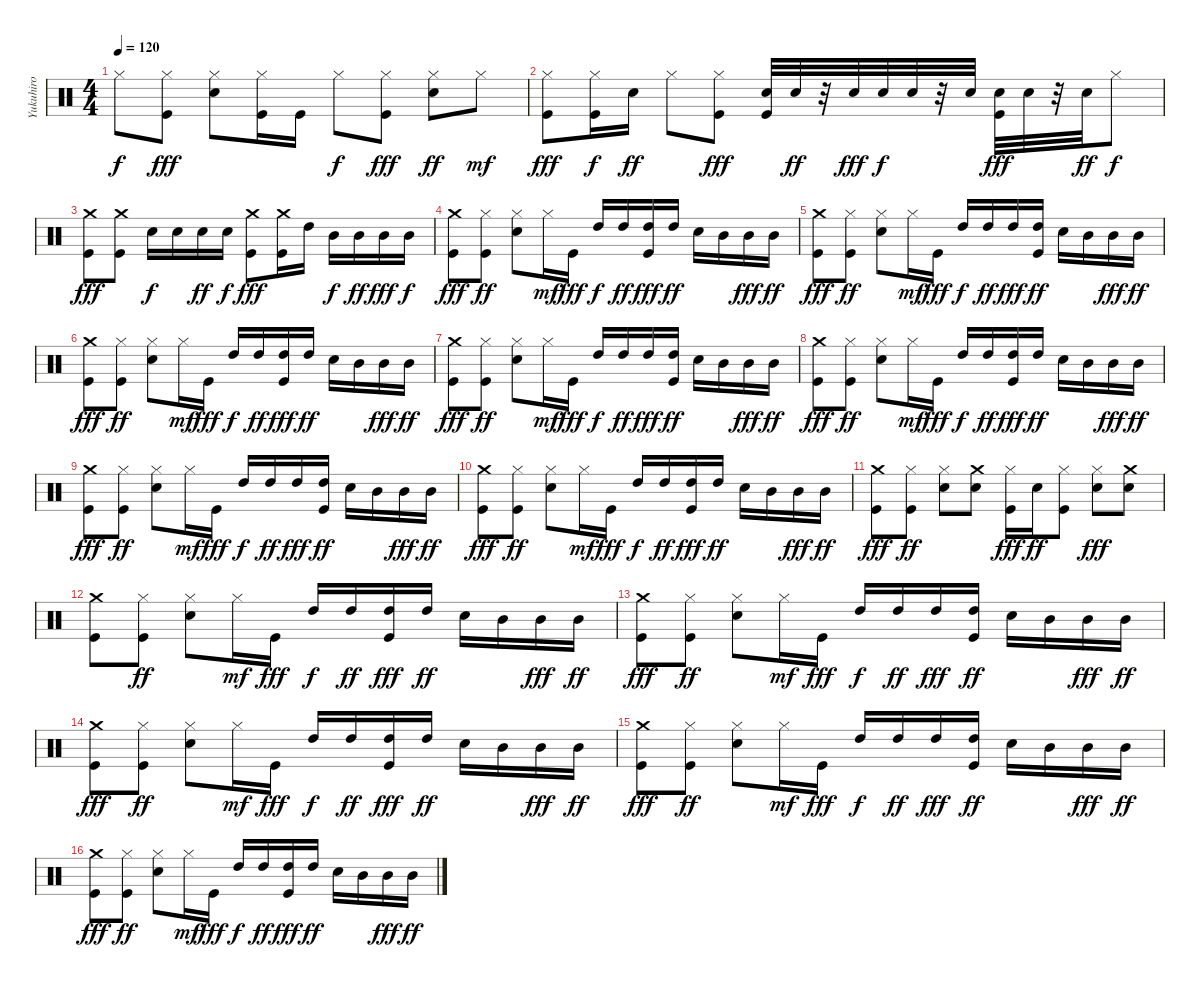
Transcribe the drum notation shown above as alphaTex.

\track ("Yukuhiro" "Yukuhiro") {instrument percussion}
\staff {score}
\articulation defaults
\ts (4 4)
\tempo 120
\clef neutral
\ks c "Hi-Hat (closed)".8{dy f}
("Hi-Hat (closed)" "Kick (hit)").8{dy fff} ("Electric Snare (hit)" "Hi-Hat (closed)").8 ("Hi-Hat (closed)" "Kick (hit)").16 "Kick (hit)".16 "Hi-Hat (closed)".8{dy f} ("Hi-Hat (closed)" "Kick (hit)").8{dy fff} ("Hi-Hat (closed)" "Electric Snare (hit)").8{dy ff} "Hi-Hat (closed)".8{dy mf} |
("Hi-Hat (closed)" "Kick (hit)").8{dy fff} ("Kick (hit)" "Hi-Hat (closed)").16{dy f} "Electric Snare (hit)".16{dy ff} "Hi-Hat (closed)".8 ("Kick (hit)" "Hi-Hat (closed)").8{dy fff} ("Kick (hit)" "Electric Snare (hit)").32 "Electric Snare (hit)".32{dy ff} r.32 "Electric Snare (hit)".32{dy fff} "Electric Snare (hit)".32{dy f} "Electric Snare (hit)".32 r.32 "Electric Snare (hit)".32 ("Kick (hit)" "Electric Snare (hit)").32{dy fff} "Electric Snare (hit)".32 r.32 "Electric Snare (hit)".32{dy ff} "Hi-Hat (closed)".8{dy f} |
("Kick (hit)" "Crash medium (hit)").8{dy fff} ("Kick (hit)" "Crash medium (hit)").8 "Electric Snare (hit)".16{dy f} "Electric Snare (hit)".16 "Electric Snare (hit)".16{dy ff} "Electric Snare (hit)".16{dy f} ("Kick (hit)" "Crash medium (hit)").8{dy fff} ("Kick (hit)" "Crash medium (hit)").16 "High Tom (hit)".16 "Mid Tom (hit)".16{dy f} "Mid Tom (hit)".16{dy ff} "Mid Tom (hit)".16{dy fff} "Mid Tom (hit)".16{dy f} |
("Crash medium (hit)" "Kick (hit)").8{dy fff} ("Kick (hit)" "Hi-Hat (closed)").8{dy ff} ("Electric Snare (hit)" "Hi-Hat (closed)").8 "Hi-Hat (closed)".16{dy mf} "Kick (hit)".16{dy fff} "High Tom (hit)".16{dy f} "High Tom (hit)".16{dy ff} ("Kick (hit)" "High Tom (hit)").16{dy fff} "High Tom (hit)".16{dy ff} "Electric Snare (hit)".16 "Mid Tom (hit)".16 "Mid Tom (hit)".16{dy fff} "Mid Tom (hit)".16{dy ff} |
("Crash medium (hit)" "Kick (hit)").8{dy fff} ("Kick (hit)" "Hi-Hat (closed)").8{dy ff} ("Electric Snare (hit)" "Hi-Hat (closed)").8 "Hi-Hat (closed)".16{dy mf} "Kick (hit)".16{dy fff} "High Tom (hit)".16{dy f} "High Tom (hit)".16{dy ff} "High Tom (hit)".16{dy fff} ("Kick (hit)" "High Tom (hit)").16{dy ff} "Electric Snare (hit)".16 "Mid Tom (hit)".16 "Mid Tom (hit)".16{dy fff} "Mid Tom (hit)".16{dy ff} |
("Crash medium (hit)" "Kick (hit)").8{dy fff} ("Kick (hit)" "Hi-Hat (closed)").8{dy ff} ("Electric Snare (hit)" "Hi-Hat (closed)").8 "Hi-Hat (closed)".16{dy mf} "Kick (hit)".16{dy fff} "High Tom (hit)".16{dy f} "High Tom (hit)".16{dy ff} ("Kick (hit)" "High Tom (hit)").16{dy fff} "High Tom (hit)".16{dy ff} "Electric Snare (hit)".16 "Mid Tom (hit)".16 "Mid Tom (hit)".16{dy fff} "Mid Tom (hit)".16{dy ff} |
("Crash medium (hit)" "Kick (hit)").8{dy fff} ("Kick (hit)" "Hi-Hat (closed)").8{dy ff} ("Electric Snare (hit)" "Hi-Hat (closed)").8 "Hi-Hat (closed)".16{dy mf} "Kick (hit)".16{dy fff} "High Tom (hit)".16{dy f} "High Tom (hit)".16{dy ff} "High Tom (hit)".16{dy fff} ("Kick (hit)" "High Tom (hit)").16{dy ff} "Electric Snare (hit)".16 "Mid Tom (hit)".16 "Mid Tom (hit)".16{dy fff} "Mid Tom (hit)".16{dy ff} |
("Crash medium (hit)" "Kick (hit)").8{dy fff} ("Kick (hit)" "Hi-Hat (closed)").8{dy ff} ("Electric Snare (hit)" "Hi-Hat (closed)").8 "Hi-Hat (closed)".16{dy mf} "Kick (hit)".16{dy fff} "High Tom (hit)".16{dy f} "High Tom (hit)".16{dy ff} ("Kick (hit)" "High Tom (hit)").16{dy fff} "High Tom (hit)".16{dy ff} "Electric Snare (hit)".16 "Mid Tom (hit)".16 "Mid Tom (hit)".16{dy fff} "Mid Tom (hit)".16{dy ff} |
("Crash medium (hit)" "Kick (hit)").8{dy fff} ("Kick (hit)" "Hi-Hat (closed)").8{dy ff} ("Electric Snare (hit)" "Hi-Hat (closed)").8 "Hi-Hat (closed)".16{dy mf} "Kick (hit)".16{dy fff} "High Tom (hit)".16{dy f} "High Tom (hit)".16{dy ff} "High Tom (hit)".16{dy fff} ("Kick (hit)" "High Tom (hit)").16{dy ff} "Electric Snare (hit)".16 "Mid Tom (hit)".16 "Mid Tom (hit)".16{dy fff} "Mid Tom (hit)".16{dy ff} |
("Crash medium (hit)" "Kick (hit)").8{dy fff} ("Kick (hit)" "Hi-Hat (closed)").8{dy ff} ("Electric Snare (hit)" "Hi-Hat (closed)").8 "Hi-Hat (closed)".16{dy mf} "Kick (hit)".16{dy fff} "High Tom (hit)".16{dy f} "High Tom (hit)".16{dy ff} ("Kick (hit)" "High Tom (hit)").16{dy fff} "High Tom (hit)".16{dy ff} "Electric Snare (hit)".16 "Mid Tom (hit)".16 "Mid Tom (hit)".16{dy fff} "Mid Tom (hit)".16{dy ff} |
("Crash medium (hit)" "Kick (hit)").8{dy fff} ("Kick (hit)" "Hi-Hat (closed)").8{dy ff} ("Electric Snare (hit)" "Hi-Hat (closed)").8 ("Crash medium (hit)" "Electric Snare (hit)").8 ("Kick (hit)" "Hi-Hat (closed)").16{dy fff} "Electric Snare (hit)".16{dy ff} ("Kick (hit)" "Hi-Hat (closed)").8 ("Electric Snare (hit)" "Hi-Hat (closed)").8{dy fff} ("Electric Snare (hit)" "Crash medium (hit)").8 |
("Crash medium (hit)" "Kick (hit)").8 ("Kick (hit)" "Hi-Hat (closed)").8{dy ff} ("Electric Snare (hit)" "Hi-Hat (closed)").8 "Hi-Hat (closed)".16{dy mf} "Kick (hit)".16{dy fff} "High Tom (hit)".16{dy f} "High Tom (hit)".16{dy ff} ("Kick (hit)" "High Tom (hit)").16{dy fff} "High Tom (hit)".16{dy ff} "Electric Snare (hit)".16 "Mid Tom (hit)".16 "Mid Tom (hit)".16{dy fff} "Mid Tom (hit)".16{dy ff} |
("Crash medium (hit)" "Kick (hit)").8{dy fff} ("Kick (hit)" "Hi-Hat (closed)").8{dy ff} ("Electric Snare (hit)" "Hi-Hat (closed)").8 "Hi-Hat (closed)".16{dy mf} "Kick (hit)".16{dy fff} "High Tom (hit)".16{dy f} "High Tom (hit)".16{dy ff} "High Tom (hit)".16{dy fff} ("Kick (hit)" "High Tom (hit)").16{dy ff} "Electric Snare (hit)".16 "Mid Tom (hit)".16 "Mid Tom (hit)".16{dy fff} "Mid Tom (hit)".16{dy ff} |
("Crash medium (hit)" "Kick (hit)").8{dy fff} ("Kick (hit)" "Hi-Hat (closed)").8{dy ff} ("Electric Snare (hit)" "Hi-Hat (closed)").8 "Hi-Hat (closed)".16{dy mf} "Kick (hit)".16{dy fff} "High Tom (hit)".16{dy f} "High Tom (hit)".16{dy ff} ("Kick (hit)" "High Tom (hit)").16{dy fff} "High Tom (hit)".16{dy ff} "Electric Snare (hit)".16 "Mid Tom (hit)".16 "Mid Tom (hit)".16{dy fff} "Mid Tom (hit)".16{dy ff} |
("Crash medium (hit)" "Kick (hit)").8{dy fff} ("Kick (hit)" "Hi-Hat (closed)").8{dy ff} ("Electric Snare (hit)" "Hi-Hat (closed)").8 "Hi-Hat (closed)".16{dy mf} "Kick (hit)".16{dy fff} "High Tom (hit)".16{dy f} "High Tom (hit)".16{dy ff} "High Tom (hit)".16{dy fff} ("Kick (hit)" "High Tom (hit)").16{dy ff} "Electric Snare (hit)".16 "Mid Tom (hit)".16 "Mid Tom (hit)".16{dy fff} "Mid Tom (hit)".16{dy ff} |
("Crash medium (hit)" "Kick (hit)").8{dy fff} ("Kick (hit)" "Hi-Hat (closed)").8{dy ff} ("Electric Snare (hit)" "Hi-Hat (closed)").8 "Hi-Hat (closed)".16{dy mf} "Kick (hit)".16{dy fff} "High Tom (hit)".16{dy f} "High Tom (hit)".16{dy ff} ("Kick (hit)" "High Tom (hit)").16{dy fff} "High Tom (hit)".16{dy ff} "Electric Snare (hit)".16 "Mid Tom (hit)".16 "Mid Tom (hit)".16{dy fff} "Mid Tom (hit)".16{dy ff}
